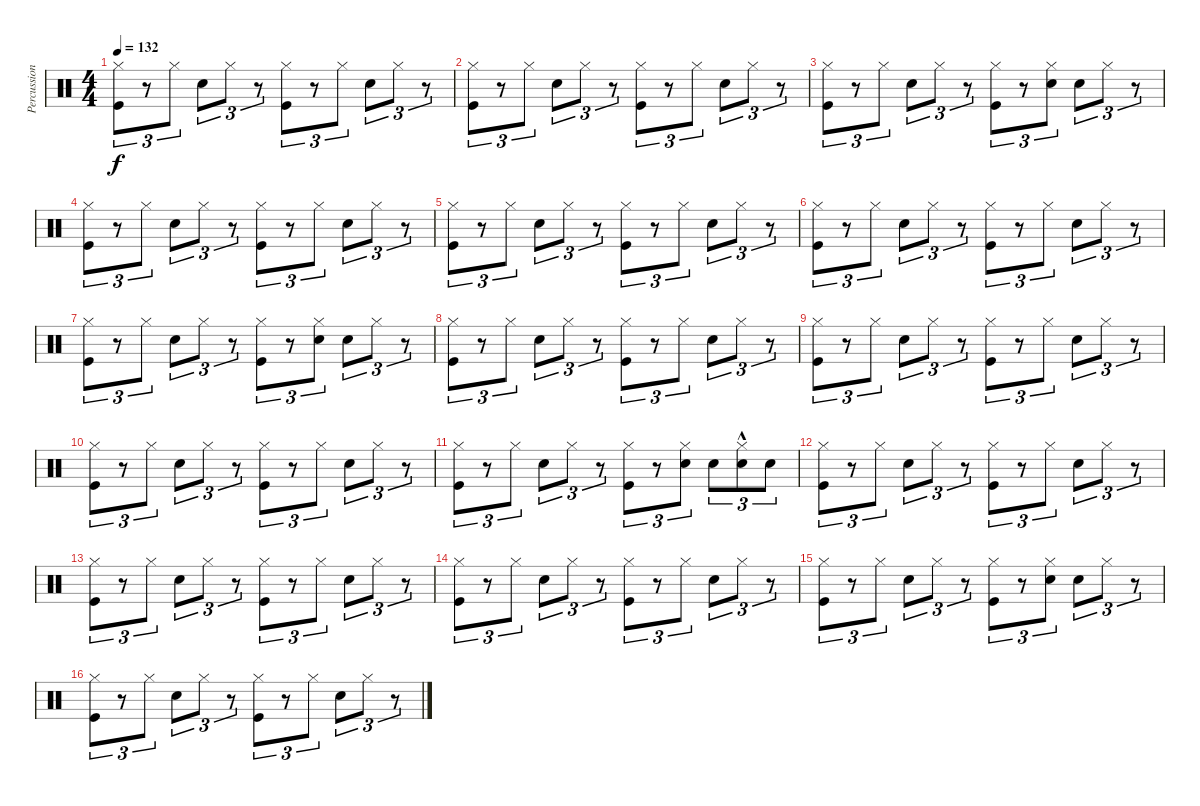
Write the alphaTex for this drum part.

\track ("Percussions" "Percussion") {instrument percussion}
\staff {score}
\articulation defaults
\ts (4 4)
\tempo 132
\clef neutral
\ks c
("Kick (hit)" "Hi-Hat (closed)").8{tu (3 2) dy f} r.8{tu (3 2)} "Hi-Hat (closed)".8{tu (3 2)} "Snare (hit) 2".8{tu (3 2)} "Hi-Hat (closed)".8{tu (3 2)} r.8{tu (3 2)} ("Kick (hit)" "Hi-Hat (closed)").8{tu (3 2)} r.8{tu (3 2)} "Hi-Hat (closed)".8{tu (3 2)} "Snare (hit) 2".8{tu (3 2)} "Hi-Hat (closed)".8{tu (3 2)} r.8{tu (3 2)} |
("Kick (hit)" "Hi-Hat (closed)").8{tu (3 2)} r.8{tu (3 2)} "Hi-Hat (closed)".8{tu (3 2)} "Snare (hit) 2".8{tu (3 2)} "Hi-Hat (closed)".8{tu (3 2)} r.8{tu (3 2)} ("Kick (hit)" "Hi-Hat (closed)").8{tu (3 2)} r.8{tu (3 2)} "Hi-Hat (closed)".8{tu (3 2)} "Snare (hit) 2".8{tu (3 2)} "Hi-Hat (closed)".8{tu (3 2)} r.8{tu (3 2)} |
("Kick (hit)" "Hi-Hat (closed)").8{tu (3 2)} r.8{tu (3 2)} "Hi-Hat (closed)".8{tu (3 2)} "Snare (hit) 2".8{tu (3 2)} "Hi-Hat (closed)".8{tu (3 2)} r.8{tu (3 2)} ("Kick (hit)" "Hi-Hat (closed)").8{tu (3 2)} r.8{tu (3 2)} ("Hi-Hat (closed)" "Snare (hit) 2").8{tu (3 2)} "Snare (hit) 2".8{tu (3 2)} "Hi-Hat (closed)".8{tu (3 2)} r.8{tu (3 2)} |
("Kick (hit)" "Hi-Hat (closed)").8{tu (3 2)} r.8{tu (3 2)} "Hi-Hat (closed)".8{tu (3 2)} "Snare (hit) 2".8{tu (3 2)} "Hi-Hat (closed)".8{tu (3 2)} r.8{tu (3 2)} ("Kick (hit)" "Hi-Hat (closed)").8{tu (3 2)} r.8{tu (3 2)} "Hi-Hat (closed)".8{tu (3 2)} "Snare (hit) 2".8{tu (3 2)} "Hi-Hat (closed)".8{tu (3 2)} r.8{tu (3 2)} |
("Kick (hit)" "Hi-Hat (closed)").8{tu (3 2)} r.8{tu (3 2)} "Hi-Hat (closed)".8{tu (3 2)} "Snare (hit) 2".8{tu (3 2)} "Hi-Hat (closed)".8{tu (3 2)} r.8{tu (3 2)} ("Kick (hit)" "Hi-Hat (closed)").8{tu (3 2)} r.8{tu (3 2)} "Hi-Hat (closed)".8{tu (3 2)} "Snare (hit) 2".8{tu (3 2)} "Hi-Hat (closed)".8{tu (3 2)} r.8{tu (3 2)} |
("Kick (hit)" "Hi-Hat (closed)").8{tu (3 2)} r.8{tu (3 2)} "Hi-Hat (closed)".8{tu (3 2)} "Snare (hit) 2".8{tu (3 2)} "Hi-Hat (closed)".8{tu (3 2)} r.8{tu (3 2)} ("Kick (hit)" "Hi-Hat (closed)").8{tu (3 2)} r.8{tu (3 2)} "Hi-Hat (closed)".8{tu (3 2)} "Snare (hit) 2".8{tu (3 2)} "Hi-Hat (closed)".8{tu (3 2)} r.8{tu (3 2)} |
("Kick (hit)" "Hi-Hat (closed)").8{tu (3 2)} r.8{tu (3 2)} "Hi-Hat (closed)".8{tu (3 2)} "Snare (hit) 2".8{tu (3 2)} "Hi-Hat (closed)".8{tu (3 2)} r.8{tu (3 2)} ("Kick (hit)" "Hi-Hat (closed)").8{tu (3 2)} r.8{tu (3 2)} ("Hi-Hat (closed)" "Snare (hit) 2").8{tu (3 2)} "Snare (hit) 2".8{tu (3 2)} "Hi-Hat (closed)".8{tu (3 2)} r.8{tu (3 2)} |
("Kick (hit)" "Hi-Hat (closed)").8{tu (3 2)} r.8{tu (3 2)} "Hi-Hat (closed)".8{tu (3 2)} "Snare (hit) 2".8{tu (3 2)} "Hi-Hat (closed)".8{tu (3 2)} r.8{tu (3 2)} ("Kick (hit)" "Hi-Hat (closed)").8{tu (3 2)} r.8{tu (3 2)} "Hi-Hat (closed)".8{tu (3 2)} "Snare (hit) 2".8{tu (3 2)} "Hi-Hat (closed)".8{tu (3 2)} r.8{tu (3 2)} |
("Kick (hit)" "Hi-Hat (closed)").8{tu (3 2)} r.8{tu (3 2)} "Hi-Hat (closed)".8{tu (3 2)} "Snare (hit) 2".8{tu (3 2)} "Hi-Hat (closed)".8{tu (3 2)} r.8{tu (3 2)} ("Kick (hit)" "Hi-Hat (closed)").8{tu (3 2)} r.8{tu (3 2)} "Hi-Hat (closed)".8{tu (3 2)} "Snare (hit) 2".8{tu (3 2)} "Hi-Hat (closed)".8{tu (3 2)} r.8{tu (3 2)} |
("Kick (hit)" "Hi-Hat (closed)").8{tu (3 2)} r.8{tu (3 2)} "Hi-Hat (closed)".8{tu (3 2)} "Snare (hit) 2".8{tu (3 2)} "Hi-Hat (closed)".8{tu (3 2)} r.8{tu (3 2)} ("Kick (hit)" "Hi-Hat (closed)").8{tu (3 2)} r.8{tu (3 2)} "Hi-Hat (closed)".8{tu (3 2)} "Snare (hit) 2".8{tu (3 2)} "Hi-Hat (closed)".8{tu (3 2)} r.8{tu (3 2)} |
("Kick (hit)" "Hi-Hat (closed)").8{tu (3 2)} r.8{tu (3 2)} "Hi-Hat (closed)".8{tu (3 2)} "Snare (hit) 2".8{tu (3 2)} "Hi-Hat (closed)".8{tu (3 2)} r.8{tu (3 2)} ("Kick (hit)" "Hi-Hat (closed)").8{tu (3 2)} r.8{tu (3 2)} ("Hi-Hat (closed)" "Snare (hit) 2").8{tu (3 2)} "Snare (hit) 2".8{tu (3 2)} ("Hi-Hat (closed)"{hac} "Snare (hit) 2"{hac}).8{tu (3 2)} "Snare (hit) 2".8{tu (3 2)} |
("Kick (hit)" "Hi-Hat (closed)").8{tu (3 2)} r.8{tu (3 2)} "Hi-Hat (closed)".8{tu (3 2)} "Snare (hit) 2".8{tu (3 2)} "Hi-Hat (closed)".8{tu (3 2)} r.8{tu (3 2)} ("Kick (hit)" "Hi-Hat (closed)").8{tu (3 2)} r.8{tu (3 2)} "Hi-Hat (closed)".8{tu (3 2)} "Snare (hit) 2".8{tu (3 2)} "Hi-Hat (closed)".8{tu (3 2)} r.8{tu (3 2)} |
("Kick (hit)" "Hi-Hat (closed)").8{tu (3 2)} r.8{tu (3 2)} "Hi-Hat (closed)".8{tu (3 2)} "Snare (hit) 2".8{tu (3 2)} "Hi-Hat (closed)".8{tu (3 2)} r.8{tu (3 2)} ("Kick (hit)" "Hi-Hat (closed)").8{tu (3 2)} r.8{tu (3 2)} "Hi-Hat (closed)".8{tu (3 2)} "Snare (hit) 2".8{tu (3 2)} "Hi-Hat (closed)".8{tu (3 2)} r.8{tu (3 2)} |
("Kick (hit)" "Hi-Hat (closed)").8{tu (3 2)} r.8{tu (3 2)} "Hi-Hat (closed)".8{tu (3 2)} "Snare (hit) 2".8{tu (3 2)} "Hi-Hat (closed)".8{tu (3 2)} r.8{tu (3 2)} ("Kick (hit)" "Hi-Hat (closed)").8{tu (3 2)} r.8{tu (3 2)} "Hi-Hat (closed)".8{tu (3 2)} "Snare (hit) 2".8{tu (3 2)} "Hi-Hat (closed)".8{tu (3 2)} r.8{tu (3 2)} |
("Kick (hit)" "Hi-Hat (closed)").8{tu (3 2)} r.8{tu (3 2)} "Hi-Hat (closed)".8{tu (3 2)} "Snare (hit) 2".8{tu (3 2)} "Hi-Hat (closed)".8{tu (3 2)} r.8{tu (3 2)} ("Kick (hit)" "Hi-Hat (closed)").8{tu (3 2)} r.8{tu (3 2)} ("Hi-Hat (closed)" "Snare (hit) 2").8{tu (3 2)} "Snare (hit) 2".8{tu (3 2)} "Hi-Hat (closed)".8{tu (3 2)} r.8{tu (3 2)} |
("Kick (hit)" "Hi-Hat (closed)").8{tu (3 2)} r.8{tu (3 2)} "Hi-Hat (closed)".8{tu (3 2)} "Snare (hit) 2".8{tu (3 2)} "Hi-Hat (closed)".8{tu (3 2)} r.8{tu (3 2)} ("Kick (hit)" "Hi-Hat (closed)").8{tu (3 2)} r.8{tu (3 2)} "Hi-Hat (closed)".8{tu (3 2)} "Snare (hit) 2".8{tu (3 2)} "Hi-Hat (closed)".8{tu (3 2)} r.8{tu (3 2)}
